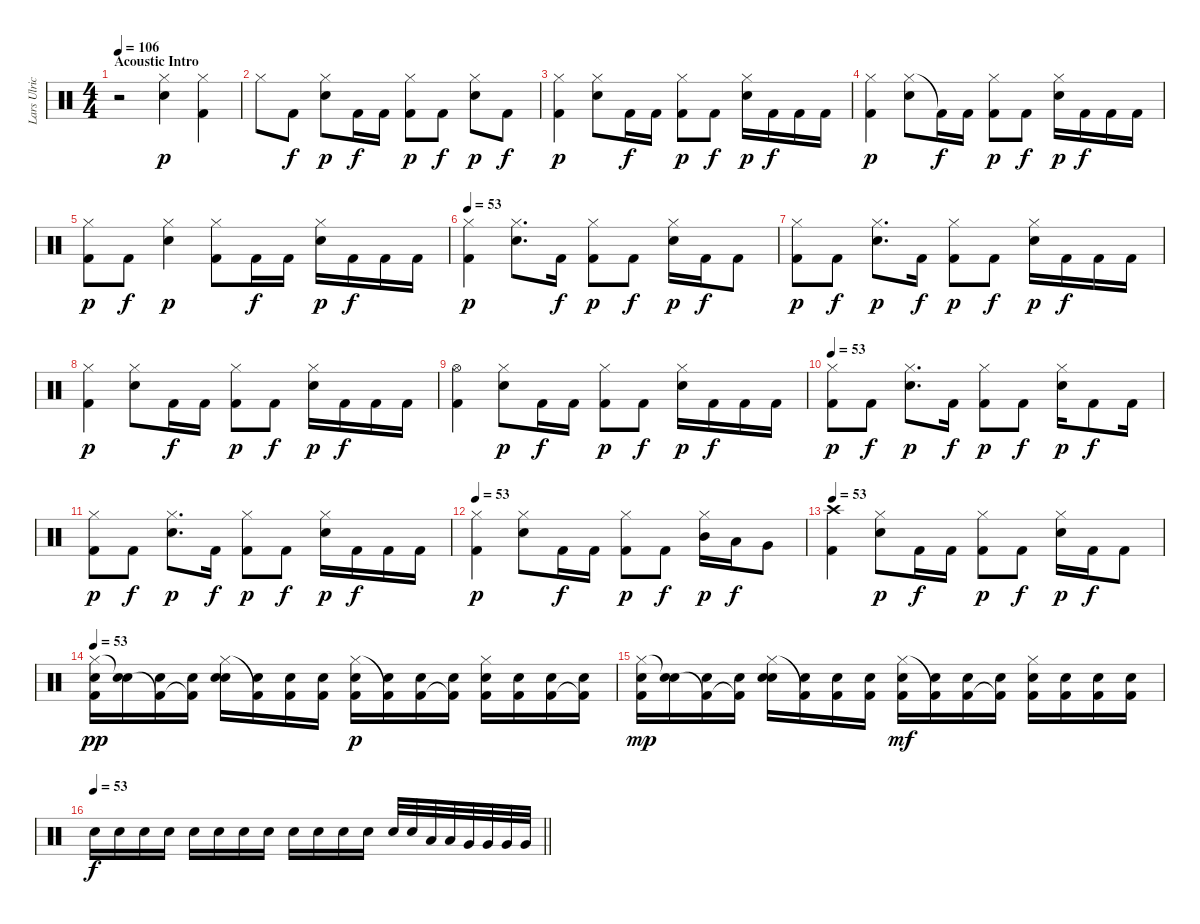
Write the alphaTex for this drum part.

\track ("Lars Ulrich" "Lars Ulric") {instrument percussion}
\staff {score}
\articulation defaults
\ts (4 4)
\section ("" "Acoustic Intro")
\tempo 106
\tempo 53
\tempo 106
\clef neutral
\ks c
r.2{dy p volume 0} ("Hi-Hat (closed)" "Electric Snare (hit)").4{volume 2} ("Hi-Hat (closed)" "Kick (hit) 2").4 |
"Hi-Hat (closed)".8{volume 5} "Kick (hit) 2".8{dy f} ("Hi-Hat (closed)" "Electric Snare (hit)").8{dy p} "Kick (hit) 2".16{dy f} "Kick (hit) 2".16 ("Hi-Hat (closed)" "Kick (hit) 2").8{dy p} "Kick (hit) 2".8{dy f} ("Hi-Hat (closed)" "Electric Snare (hit)").8{dy p} "Kick (hit) 2".8{dy f} |
("Hi-Hat (closed)" "Kick (hit) 2").4{dy p volume 8} ("Hi-Hat (closed)" "Electric Snare (hit)").8 "Kick (hit) 2".16{dy f} "Kick (hit) 2".16 ("Hi-Hat (closed)" "Kick (hit) 2").8{dy p} "Kick (hit) 2".8{dy f} ("Hi-Hat (closed)" "Electric Snare (hit)").16{dy p} "Kick (hit) 2".16{dy f} "Kick (hit) 2".16 "Kick (hit) 2".16 |
("Hi-Hat (closed)" "Kick (hit) 2").4{dy p volume 11} ("Hi-Hat (closed)" "Electric Snare (hit)").8 "Kick (hit) 2"{t}.16{dy f} "Kick (hit) 2".16 ("Hi-Hat (closed)" "Kick (hit) 2").8{dy p} "Kick (hit) 2".8{dy f} ("Hi-Hat (closed)" "Electric Snare (hit)").16{dy p} "Kick (hit) 2".16{dy f} "Kick (hit) 2".16 "Kick (hit) 2".16 |
("Hi-Hat (closed)" "Kick (hit) 2").8{dy p volume 13} "Kick (hit) 2".8{dy f} ("Hi-Hat (closed)" "Electric Snare (hit)").4{dy p} ("Hi-Hat (closed)" "Kick (hit) 2").8 "Kick (hit) 2".16{dy f} "Kick (hit) 2".16 ("Hi-Hat (closed)" "Electric Snare (hit)").16{dy p} "Kick (hit) 2".16{dy f} "Kick (hit) 2".16 "Kick (hit) 2".16 |
\tempo 53
("Hi-Hat (closed)" "Kick (hit) 2").4{dy p} ("Hi-Hat (closed)" "Electric Snare (hit)").8{d} "Kick (hit) 2".16{dy f} ("Hi-Hat (closed)" "Kick (hit) 2").8{dy p} "Kick (hit) 2".8{dy f} ("Hi-Hat (closed)" "Electric Snare (hit)").16{dy p} "Kick (hit) 2".16{dy f} "Kick (hit) 2".8 |
("Hi-Hat (closed)" "Kick (hit) 2").8{dy p} "Kick (hit) 2".8{dy f} ("Hi-Hat (closed)" "Electric Snare (hit)").8{d dy p} "Kick (hit) 2".16{dy f} ("Hi-Hat (closed)" "Kick (hit) 2").8{dy p} "Kick (hit) 2".8{dy f} ("Hi-Hat (closed)" "Electric Snare (hit)").16{dy p} "Kick (hit) 2".16{dy f} "Kick (hit) 2".16 "Kick (hit) 2".16 |
("Hi-Hat (closed)" "Kick (hit) 2").4{dy p} ("Hi-Hat (closed)" "Electric Snare (hit)").8 "Kick (hit) 2".16{dy f} "Kick (hit) 2".16 ("Hi-Hat (closed)" "Kick (hit) 2").8{dy p} "Kick (hit) 2".8{dy f} ("Hi-Hat (closed)" "Electric Snare (hit)").16{dy p} "Kick (hit) 2".16{dy f} "Kick (hit) 2".16 "Kick (hit) 2".16 |
("Hi-Hat (open)" "Kick (hit) 2").4 ("Hi-Hat (closed)" "Electric Snare (hit)").8{dy p} "Kick (hit) 2".16{dy f} "Kick (hit) 2".16 ("Hi-Hat (closed)" "Kick (hit) 2").8{dy p} "Kick (hit) 2".8{dy f} ("Hi-Hat (closed)" "Electric Snare (hit)").16{dy p} "Kick (hit) 2".16{dy f} "Kick (hit) 2".16 "Kick (hit) 2".16 |
\tempo 53
("Hi-Hat (closed)" "Kick (hit) 2").8{dy p} "Kick (hit) 2".8{dy f} ("Hi-Hat (closed)" "Electric Snare (hit)").8{d dy p} "Kick (hit) 2".16{dy f} ("Hi-Hat (closed)" "Kick (hit) 2").8{dy p} "Kick (hit) 2".8{dy f} ("Hi-Hat (closed)" "Electric Snare (hit)").16{dy p} "Kick (hit) 2".8{dy f} "Kick (hit) 2".16 |
("Hi-Hat (closed)" "Kick (hit) 2").8{dy p} "Kick (hit) 2".8{dy f} ("Hi-Hat (closed)" "Electric Snare (hit)").8{d dy p} "Kick (hit) 2".16{dy f} ("Hi-Hat (closed)" "Kick (hit) 2").8{dy p} "Kick (hit) 2".8{dy f} ("Hi-Hat (closed)" "Electric Snare (hit)").16{dy p} "Kick (hit) 2".16{dy f} "Kick (hit) 2".16 "Kick (hit) 2".16 |
\tempo 53
("Hi-Hat (closed)" "Kick (hit) 2").4{dy p} ("Hi-Hat (closed)" "Electric Snare (hit)").8 "Kick (hit) 2".16{dy f} "Kick (hit) 2".16 ("Hi-Hat (closed)" "Kick (hit) 2").8{dy p} "Kick (hit) 2".8{dy f} ("Hi-Hat (closed)" "Mid Tom (hit)").16{dy p} "Low Tom (hit)".16{dy f} "Very Low Tom (hit)".8 |
\tempo 53
("Crash high (hit)" "Kick (hit) 2").4 ("Hi-Hat (closed)" "Electric Snare (hit)").8{dy p} "Kick (hit) 2".16{dy f} "Kick (hit) 2".16 ("Hi-Hat (closed)" "Kick (hit) 2").8{dy p} "Kick (hit) 2".8{dy f} ("Hi-Hat (closed)" "Electric Snare (hit)").16{dy p} "Kick (hit) 2".16{dy f} "Kick (hit) 2".8 |
\tempo 53
("Hi-Hat (closed)" "Kick (hit) 2" "Electric Snare (hit)").16{dy pp} ("Electric Snare (hit)"{t} "Electric Snare (hit)").16 ("Kick (hit) 2"{t} "Electric Snare (hit)").16 ("Kick (hit) 2"{t} "Electric Snare (hit)").16 ("Hi-Hat (closed)" "Electric Snare (hit)" "Electric Snare (hit)").16 ("Kick (hit) 2"{t} "Electric Snare (hit)").16 ("Kick (hit) 2" "Electric Snare (hit)").16 ("Kick (hit) 2" "Electric Snare (hit)").16 ("Hi-Hat (closed)" "Kick (hit) 2" "Electric Snare (hit)").16{dy p} ("Kick (hit) 2"{t} "Electric Snare (hit)").16 ("Kick (hit) 2" "Electric Snare (hit)").16 ("Kick (hit) 2"{t} "Electric Snare (hit)").16 ("Hi-Hat (closed)" "Kick (hit) 2" "Electric Snare (hit)").16 ("Kick (hit) 2" "Electric Snare (hit)").16 ("Kick (hit) 2" "Electric Snare (hit)").16 ("Kick (hit) 2"{t} "Electric Snare (hit)").16 |
("Hi-Hat (closed)" "Kick (hit) 2" "Electric Snare (hit)").16{dy mp} ("Electric Snare (hit)"{t} "Electric Snare (hit)").16 ("Kick (hit) 2"{t} "Electric Snare (hit)").16 ("Kick (hit) 2"{t} "Electric Snare (hit)").16 ("Hi-Hat (closed)" "Electric Snare (hit)" "Electric Snare (hit)").16 ("Kick (hit) 2"{t} "Electric Snare (hit)").16 ("Kick (hit) 2" "Electric Snare (hit)").16 ("Kick (hit) 2" "Electric Snare (hit)").16 ("Hi-Hat (closed)" "Kick (hit) 2" "Electric Snare (hit)").16{dy mf} ("Kick (hit) 2"{t} "Electric Snare (hit)").16 ("Kick (hit) 2" "Electric Snare (hit)").16 ("Kick (hit) 2"{t} "Electric Snare (hit)").16 ("Hi-Hat (closed)" "Kick (hit) 2" "Electric Snare (hit)").16 ("Kick (hit) 2" "Electric Snare (hit)").16 ("Kick (hit) 2" "Electric Snare (hit)").16 ("Kick (hit) 2" "Electric Snare (hit)").16 |
\tempo 53
\barLineRight lightlight "Electric Snare (hit)".16{dy f} "Electric Snare (hit)".16 "Electric Snare (hit)".16 "Electric Snare (hit)".16 "Electric Snare (hit)".16 "Electric Snare (hit)".16 "Electric Snare (hit)".16 "Electric Snare (hit)".16 "Electric Snare (hit)".16 "Electric Snare (hit)".16 "Electric Snare (hit)".16 "Electric Snare (hit)".16 "Electric Snare (hit)".32 "Electric Snare (hit)".32 "Low Tom (hit)".32 "Low Tom (hit)".32 "Very Low Tom (hit)".32 "Very Low Tom (hit)".32 "Very Low Tom (hit)".32 "Very Low Tom (hit)".32
